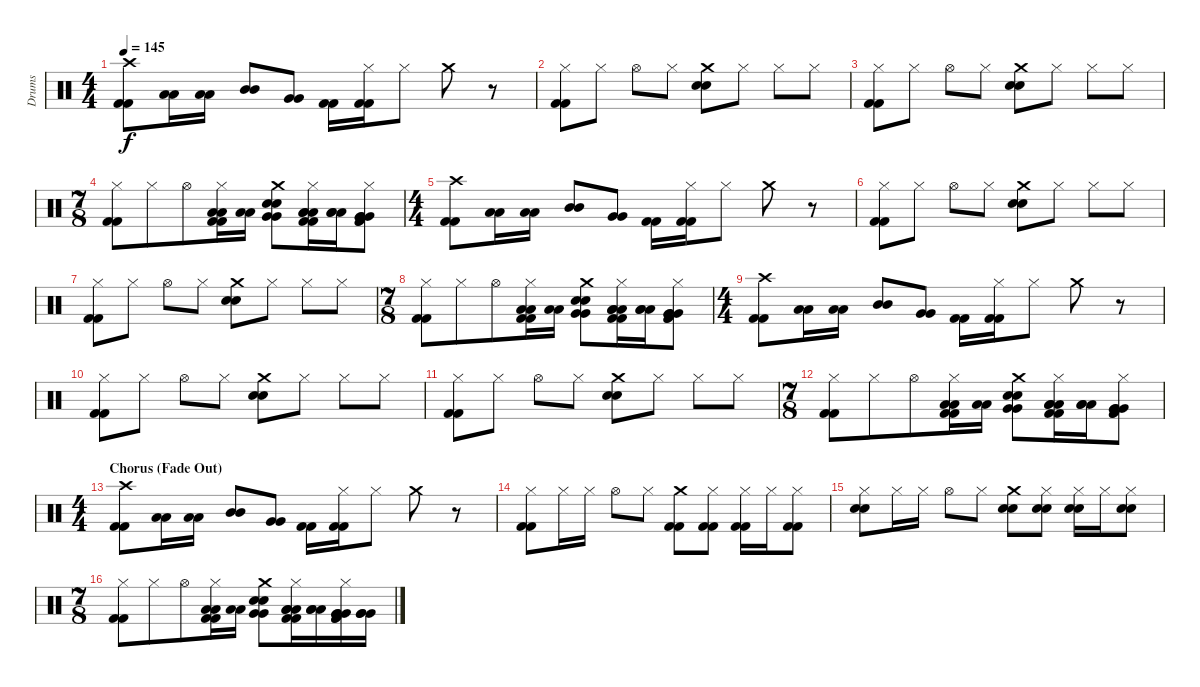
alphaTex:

\track ("Drums" "Drums") {instrument percussion}
\staff {score}
\articulation defaults
\ts (4 4)
\tempo 145
\clef neutral
\ks c
("Crash high (hit)" "Kick (hit) 2" "Kick (hit) 2").8{dy f volume 14} ("Low Tom (hit)" "Low Tom (hit)").16 ("Low Tom (hit)" "Low Tom (hit)").16 ("Mid Tom (hit)" "Mid Tom (hit)").8 ("Very Low Tom (hit)" "Very Low Tom (hit)").8 ("Kick (hit) 2" "Kick (hit) 2").16 ("Hi-Hat (closed)" "Kick (hit) 2" "Kick (hit) 2").16 "Hi-Hat (closed)".8 "Crash medium (hit)".8 r.8 |
("Hi-Hat (closed)" "Kick (hit) 2" "Kick (hit) 2").8 "Hi-Hat (closed)".8 "Hi-Hat (open)".8 "Hi-Hat (closed)".8 ("Crash medium (hit)" "Snare (hit) 2" "Snare (hit) 2").8 "Hi-Hat (closed)".8 "Hi-Hat (closed)".8 "Hi-Hat (closed)".8 |
("Hi-Hat (closed)" "Kick (hit) 2" "Kick (hit) 2").8 "Hi-Hat (closed)".8 "Hi-Hat (open)".8 "Hi-Hat (closed)".8 ("Crash medium (hit)" "Snare (hit) 2" "Snare (hit) 2").8 "Hi-Hat (closed)".8 "Hi-Hat (closed)".8 "Hi-Hat (closed)".8 |
\ts (7 8)
("Hi-Hat (closed)" "Kick (hit) 2" "Kick (hit) 2").8 "Hi-Hat (closed)".8 "Hi-Hat (open)".8 ("Low Tom (hit)" "Low Tom (hit)" "Hi-Hat (closed)" "Kick (hit) 2" "Kick (hit) 2").16 ("Low Tom (hit)" "Low Tom (hit)").16 ("Very Low Tom (hit)" "Very Low Tom (hit)" "Crash medium (hit)" "Snare (hit) 2" "Snare (hit) 2").8 ("Kick (hit) 2" "Kick (hit) 2" "Hi-Hat (closed)" "Low Tom (hit)" "Low Tom (hit)" "Low Tom (hit)").16 ("Low Tom (hit)" "Low Tom (hit)" "Low Tom (hit)").16 ("Kick (hit) 2" "Kick (hit) 2" "Hi-Hat (closed)" "Very Low Tom (hit)" "Very Low Tom (hit)" "Very Low Tom (hit)").8 |
\ts (4 4)
("Crash high (hit)" "Kick (hit) 2" "Kick (hit) 2").8 ("Low Tom (hit)" "Low Tom (hit)").16 ("Low Tom (hit)" "Low Tom (hit)").16 ("Mid Tom (hit)" "Mid Tom (hit)").8 ("Very Low Tom (hit)" "Very Low Tom (hit)").8 ("Kick (hit) 2" "Kick (hit) 2").16 ("Hi-Hat (closed)" "Kick (hit) 2" "Kick (hit) 2").16 "Hi-Hat (closed)".8 "Crash medium (hit)".8 r.8 |
("Hi-Hat (closed)" "Kick (hit) 2" "Kick (hit) 2").8 "Hi-Hat (closed)".8 "Hi-Hat (open)".8 "Hi-Hat (closed)".8 ("Crash medium (hit)" "Snare (hit) 2" "Snare (hit) 2").8 "Hi-Hat (closed)".8 "Hi-Hat (closed)".8 "Hi-Hat (closed)".8 |
("Hi-Hat (closed)" "Kick (hit) 2" "Kick (hit) 2").8 "Hi-Hat (closed)".8 "Hi-Hat (open)".8 "Hi-Hat (closed)".8 ("Crash medium (hit)" "Snare (hit) 2" "Snare (hit) 2").8 "Hi-Hat (closed)".8 "Hi-Hat (closed)".8 "Hi-Hat (closed)".8 |
\ts (7 8)
("Hi-Hat (closed)" "Kick (hit) 2" "Kick (hit) 2").8 "Hi-Hat (closed)".8 "Hi-Hat (open)".8 ("Low Tom (hit)" "Low Tom (hit)" "Hi-Hat (closed)" "Kick (hit) 2" "Kick (hit) 2").16 ("Low Tom (hit)" "Low Tom (hit)").16 ("Very Low Tom (hit)" "Very Low Tom (hit)" "Crash medium (hit)" "Snare (hit) 2" "Snare (hit) 2").8 ("Kick (hit) 2" "Kick (hit) 2" "Hi-Hat (closed)" "Low Tom (hit)" "Low Tom (hit)" "Low Tom (hit)").16 ("Low Tom (hit)" "Low Tom (hit)" "Low Tom (hit)").16 ("Kick (hit) 2" "Kick (hit) 2" "Hi-Hat (closed)" "Very Low Tom (hit)" "Very Low Tom (hit)" "Very Low Tom (hit)").8 |
\ts (4 4)
("Crash high (hit)" "Kick (hit) 2" "Kick (hit) 2").8 ("Low Tom (hit)" "Low Tom (hit)").16 ("Low Tom (hit)" "Low Tom (hit)").16 ("Mid Tom (hit)" "Mid Tom (hit)").8 ("Very Low Tom (hit)" "Very Low Tom (hit)").8 ("Kick (hit) 2" "Kick (hit) 2").16 ("Hi-Hat (closed)" "Kick (hit) 2" "Kick (hit) 2").16 "Hi-Hat (closed)".8 "Crash medium (hit)".8 r.8 |
("Hi-Hat (closed)" "Kick (hit) 2" "Kick (hit) 2").8 "Hi-Hat (closed)".8 "Hi-Hat (open)".8 "Hi-Hat (closed)".8 ("Crash medium (hit)" "Snare (hit) 2" "Snare (hit) 2").8 "Hi-Hat (closed)".8 "Hi-Hat (closed)".8 "Hi-Hat (closed)".8 |
("Hi-Hat (closed)" "Kick (hit) 2" "Kick (hit) 2").8 "Hi-Hat (closed)".8 "Hi-Hat (open)".8 "Hi-Hat (closed)".8 ("Crash medium (hit)" "Snare (hit) 2" "Snare (hit) 2").8 "Hi-Hat (closed)".8 "Hi-Hat (closed)".8 "Hi-Hat (closed)".8 |
\ts (7 8)
("Hi-Hat (closed)" "Kick (hit) 2" "Kick (hit) 2").8 "Hi-Hat (closed)".8 "Hi-Hat (open)".8 ("Low Tom (hit)" "Low Tom (hit)" "Hi-Hat (closed)" "Kick (hit) 2" "Kick (hit) 2").16 ("Low Tom (hit)" "Low Tom (hit)").16 ("Very Low Tom (hit)" "Very Low Tom (hit)" "Crash medium (hit)" "Snare (hit) 2" "Snare (hit) 2").8 ("Kick (hit) 2" "Kick (hit) 2" "Hi-Hat (closed)" "Low Tom (hit)" "Low Tom (hit)" "Low Tom (hit)").16 ("Low Tom (hit)" "Low Tom (hit)" "Low Tom (hit)").16 ("Kick (hit) 2" "Kick (hit) 2" "Hi-Hat (closed)" "Very Low Tom (hit)" "Very Low Tom (hit)" "Very Low Tom (hit)").8 |
\ts (4 4)
\section ("" "Chorus (Fade Out)")
("Crash high (hit)" "Kick (hit) 2" "Kick (hit) 2").8{volume 13} ("Low Tom (hit)" "Low Tom (hit)").16 ("Low Tom (hit)" "Low Tom (hit)").16 ("Mid Tom (hit)" "Mid Tom (hit)").8 ("Very Low Tom (hit)" "Very Low Tom (hit)").8 ("Kick (hit) 2" "Kick (hit) 2").16 ("Hi-Hat (closed)" "Kick (hit) 2" "Kick (hit) 2").16 "Hi-Hat (closed)".8 "Crash medium (hit)".8 r.8 |
("Hi-Hat (closed)" "Kick (hit) 2" "Kick (hit) 2").8 "Hi-Hat (closed)".16 "Hi-Hat (closed)".16 "Hi-Hat (open)".8 "Hi-Hat (closed)".8 ("Crash medium (hit)" "Kick (hit) 2" "Kick (hit) 2").8 ("Hi-Hat (closed)" "Kick (hit) 2" "Kick (hit) 2").8 ("Hi-Hat (closed)" "Kick (hit) 2" "Kick (hit) 2").16 "Hi-Hat (closed)".16 ("Hi-Hat (closed)" "Kick (hit) 2" "Kick (hit) 2").8 |
("Hi-Hat (closed)" "Snare (hit) 2" "Snare (hit) 2").8{volume 12} "Hi-Hat (closed)".16 "Hi-Hat (closed)".16 "Hi-Hat (open)".8 "Hi-Hat (closed)".8 ("Crash medium (hit)" "Snare (hit) 2" "Snare (hit) 2").8 ("Hi-Hat (closed)" "Snare (hit) 2" "Snare (hit) 2").8 ("Hi-Hat (closed)" "Snare (hit) 2" "Snare (hit) 2").16 "Hi-Hat (closed)".16 ("Hi-Hat (closed)" "Snare (hit) 2" "Snare (hit) 2").8 |
\ts (7 8)
("Hi-Hat (closed)" "Kick (hit) 2" "Kick (hit) 2").8 "Hi-Hat (closed)".8 "Hi-Hat (open)".8 ("Low Tom (hit)" "Low Tom (hit)" "Hi-Hat (closed)" "Kick (hit) 2" "Kick (hit) 2").16 ("Low Tom (hit)" "Low Tom (hit)").16 ("Very Low Tom (hit)" "Very Low Tom (hit)" "Crash medium (hit)" "Snare (hit) 2" "Snare (hit) 2").8 ("Kick (hit) 2" "Kick (hit) 2" "Hi-Hat (closed)" "Low Tom (hit)" "Low Tom (hit)" "Low Tom (hit)").16 ("Low Tom (hit)" "Low Tom (hit)" "Low Tom (hit)").16 ("Kick (hit) 2" "Kick (hit) 2" "Hi-Hat (closed)" "Very Low Tom (hit)" "Very Low Tom (hit)" "Very Low Tom (hit)").16 ("Very Low Tom (hit)" "Very Low Tom (hit)" "Very Low Tom (hit)").16
